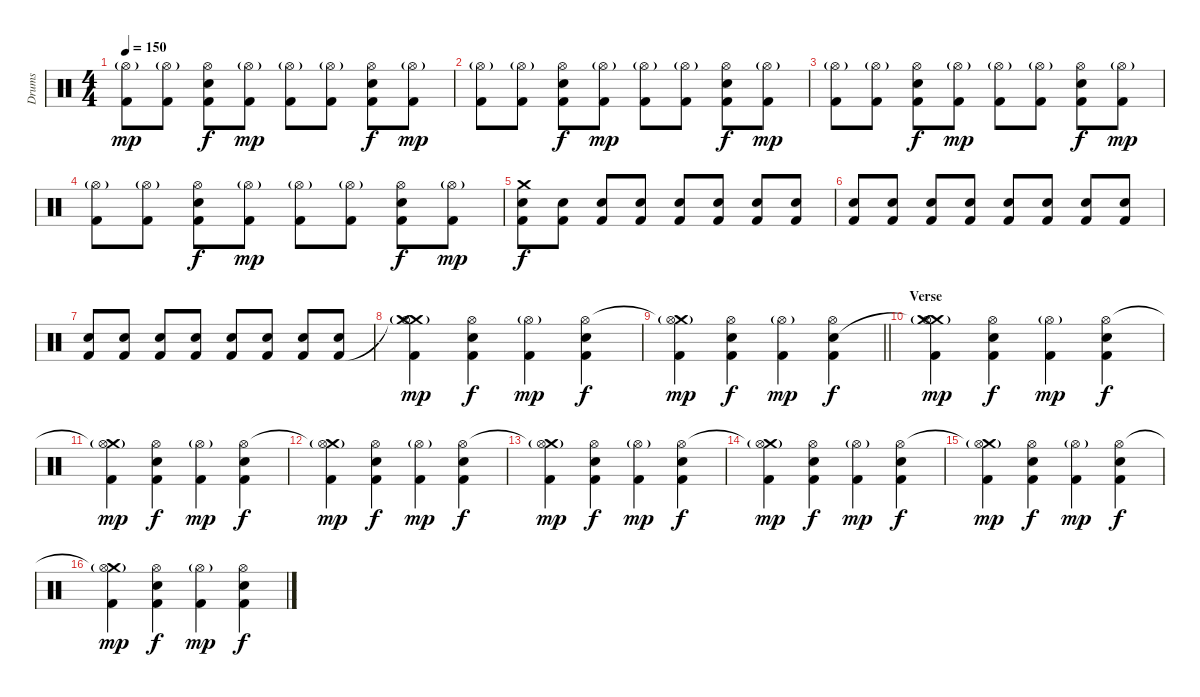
\track ("Drums" "Drums") {instrument percussion}
\staff {score}
\articulation defaults
\ts (4 4)
\tempo 150
\clef neutral
\ks c
("Hi-Hat (open)"{g} "Kick (hit) 2").8{dy mp} ("Hi-Hat (open)"{g} "Kick (hit) 2").8 ("Hi-Hat (open)" "Electric Snare (hit)" "Kick (hit) 2").8{dy f} ("Hi-Hat (open)"{g} "Kick (hit) 2").8{dy mp} ("Hi-Hat (open)"{g} "Kick (hit) 2").8 ("Hi-Hat (open)"{g} "Kick (hit) 2").8 ("Hi-Hat (open)" "Electric Snare (hit)" "Kick (hit) 2").8{dy f} ("Hi-Hat (open)"{g} "Kick (hit) 2").8{dy mp} |
("Hi-Hat (open)"{g} "Kick (hit) 2").8 ("Hi-Hat (open)"{g} "Kick (hit) 2").8 ("Hi-Hat (open)" "Electric Snare (hit)" "Kick (hit) 2").8{dy f} ("Hi-Hat (open)"{g} "Kick (hit) 2").8{dy mp} ("Hi-Hat (open)"{g} "Kick (hit) 2").8 ("Hi-Hat (open)"{g} "Kick (hit) 2").8 ("Hi-Hat (open)" "Electric Snare (hit)" "Kick (hit) 2").8{dy f} ("Hi-Hat (open)"{g} "Kick (hit) 2").8{dy mp} |
("Hi-Hat (open)"{g} "Kick (hit) 2").8 ("Hi-Hat (open)"{g} "Kick (hit) 2").8 ("Hi-Hat (open)" "Electric Snare (hit)" "Kick (hit) 2").8{dy f} ("Hi-Hat (open)"{g} "Kick (hit) 2").8{dy mp} ("Hi-Hat (open)"{g} "Kick (hit) 2").8 ("Hi-Hat (open)"{g} "Kick (hit) 2").8 ("Hi-Hat (open)" "Electric Snare (hit)" "Kick (hit) 2").8{dy f} ("Hi-Hat (open)"{g} "Kick (hit) 2").8{dy mp} |
("Hi-Hat (open)"{g} "Kick (hit) 2").8 ("Hi-Hat (open)"{g} "Kick (hit) 2").8 ("Hi-Hat (open)" "Electric Snare (hit)" "Kick (hit) 2").8{dy f} ("Hi-Hat (open)"{g} "Kick (hit) 2").8{dy mp} ("Hi-Hat (open)"{g} "Kick (hit) 2").8 ("Hi-Hat (open)"{g} "Kick (hit) 2").8 ("Hi-Hat (open)" "Electric Snare (hit)" "Kick (hit) 2").8{dy f} ("Hi-Hat (open)"{g} "Kick (hit) 2").8{dy mp} |
("Crash medium (hit)" "Electric Snare (hit)" "Kick (hit) 2").8{dy f} ("Electric Snare (hit)" "Kick (hit) 2").8 ("Electric Snare (hit)" "Kick (hit) 2").8 ("Electric Snare (hit)" "Kick (hit) 2").8 ("Electric Snare (hit)" "Kick (hit) 2").8 ("Electric Snare (hit)" "Kick (hit) 2").8 ("Electric Snare (hit)" "Kick (hit) 2").8 ("Electric Snare (hit)" "Kick (hit) 2").8 |
("Electric Snare (hit)" "Kick (hit) 2").8 ("Electric Snare (hit)" "Kick (hit) 2").8 ("Electric Snare (hit)" "Kick (hit) 2").8 ("Electric Snare (hit)" "Kick (hit) 2").8 ("Electric Snare (hit)" "Kick (hit) 2").8 ("Electric Snare (hit)" "Kick (hit) 2").8 ("Electric Snare (hit)" "Kick (hit) 2").8 ("Electric Snare (hit)" "Kick (hit) 2").8 |
("Electric Snare (hit)" "Kick (hit) 2").8 ("Electric Snare (hit)" "Kick (hit) 2").8 ("Electric Snare (hit)" "Kick (hit) 2").8 ("Electric Snare (hit)" "Kick (hit) 2").8 ("Electric Snare (hit)" "Kick (hit) 2").8 ("Electric Snare (hit)" "Kick (hit) 2").8 ("Electric Snare (hit)" "Kick (hit) 2").8 ("Electric Snare (hit)" "Kick (hit) 2").8 |
("Crash medium (hit)" "Crash medium (hit)"{t} "Hi-Hat (open)"{g} "Kick (hit) 2").4{dy mp} ("Hi-Hat (open)" "Electric Snare (hit)" "Kick (hit) 2").4{dy f} ("Hi-Hat (open)"{g} "Kick (hit) 2").4{dy mp} ("Hi-Hat (open)" "Electric Snare (hit)" "Kick (hit) 2").4{dy f} |
\barLineRight lightlight
("Crash medium (hit)"{t} "Hi-Hat (open)"{g} "Kick (hit) 2").4{dy mp} ("Hi-Hat (open)" "Electric Snare (hit)" "Kick (hit) 2").4{dy f} ("Hi-Hat (open)"{g} "Kick (hit) 2").4{dy mp} ("Hi-Hat (open)" "Electric Snare (hit)" "Kick (hit) 2").4{dy f} |
\section ("" "Verse")
("Crash medium (hit)" "Crash medium (hit)"{t} "Hi-Hat (open)"{g} "Kick (hit) 2").4{dy mp} ("Hi-Hat (open)" "Electric Snare (hit)" "Kick (hit) 2").4{dy f} ("Hi-Hat (open)"{g} "Kick (hit) 2").4{dy mp} ("Hi-Hat (open)" "Electric Snare (hit)" "Kick (hit) 2").4{dy f} |
("Crash medium (hit)"{t} "Hi-Hat (open)"{g} "Kick (hit) 2").4{dy mp} ("Hi-Hat (open)" "Electric Snare (hit)" "Kick (hit) 2").4{dy f} ("Hi-Hat (open)"{g} "Kick (hit) 2").4{dy mp} ("Hi-Hat (open)" "Electric Snare (hit)" "Kick (hit) 2").4{dy f} |
("Crash medium (hit)"{t} "Hi-Hat (open)"{g} "Kick (hit) 2").4{dy mp} ("Hi-Hat (open)" "Electric Snare (hit)" "Kick (hit) 2").4{dy f} ("Hi-Hat (open)"{g} "Kick (hit) 2").4{dy mp} ("Hi-Hat (open)" "Electric Snare (hit)" "Kick (hit) 2").4{dy f} |
("Crash medium (hit)"{t} "Hi-Hat (open)"{g} "Kick (hit) 2").4{dy mp} ("Hi-Hat (open)" "Electric Snare (hit)" "Kick (hit) 2").4{dy f} ("Hi-Hat (open)"{g} "Kick (hit) 2").4{dy mp} ("Hi-Hat (open)" "Electric Snare (hit)" "Kick (hit) 2").4{dy f} |
("Crash medium (hit)"{t} "Hi-Hat (open)"{g} "Kick (hit) 2").4{dy mp} ("Hi-Hat (open)" "Electric Snare (hit)" "Kick (hit) 2").4{dy f} ("Hi-Hat (open)"{g} "Kick (hit) 2").4{dy mp} ("Hi-Hat (open)" "Electric Snare (hit)" "Kick (hit) 2").4{dy f} |
("Crash medium (hit)"{t} "Hi-Hat (open)"{g} "Kick (hit) 2").4{dy mp} ("Hi-Hat (open)" "Electric Snare (hit)" "Kick (hit) 2").4{dy f} ("Hi-Hat (open)"{g} "Kick (hit) 2").4{dy mp} ("Hi-Hat (open)" "Electric Snare (hit)" "Kick (hit) 2").4{dy f} |
("Crash medium (hit)"{t} "Hi-Hat (open)"{g} "Kick (hit) 2").4{dy mp} ("Hi-Hat (open)" "Electric Snare (hit)" "Kick (hit) 2").4{dy f} ("Hi-Hat (open)"{g} "Kick (hit) 2").4{dy mp} ("Hi-Hat (open)" "Electric Snare (hit)" "Kick (hit) 2").4{dy f}
